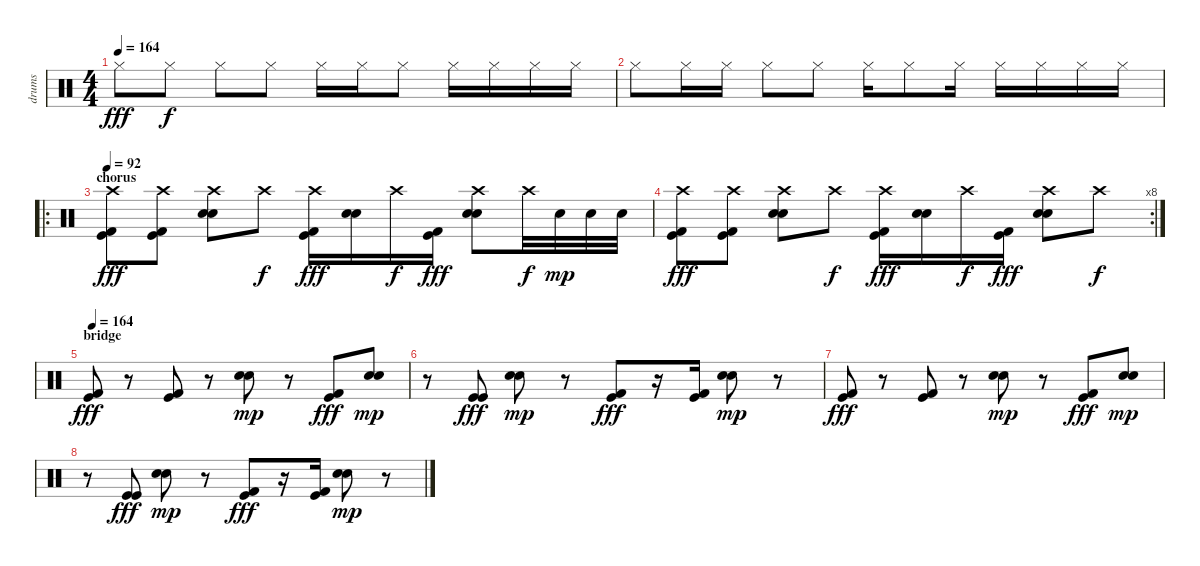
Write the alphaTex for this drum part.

\track ("drums" "drums") {instrument percussion}
\staff {score}
\articulation defaults
\ts (4 4)
\tempo 164
\clef neutral
\ks c "Hi-Hat (closed)".8{dy fff} "Hi-Hat (closed)".8{dy f} "Hi-Hat (closed)".8 "Hi-Hat (closed)".8 "Hi-Hat (closed)".16 "Hi-Hat (closed)".16 "Hi-Hat (closed)".8 "Hi-Hat (closed)".16 "Hi-Hat (closed)".16 "Hi-Hat (closed)".16 "Hi-Hat (closed)".16
|
"Hi-Hat (closed)".8 "Hi-Hat (closed)".16 "Hi-Hat (closed)".16 "Hi-Hat (closed)".8 "Hi-Hat (closed)".8 "Hi-Hat (closed)".16 "Hi-Hat (closed)".8 "Hi-Hat (closed)".16 "Hi-Hat (closed)".16 "Hi-Hat (closed)".16 "Hi-Hat (closed)".16 "Hi-Hat (closed)".16 |
\ro
\section ("" "chorus")
\tempo 92
("Crash high (hit)" "Kick (hit) 2" "Kick (hit)").8{dy fff} ("Crash high (hit)" "Kick (hit) 2" "Kick (hit)").8 ("Crash high (hit)" "Electric Snare (hit)" "Snare (hit) 2").8 "Crash high (hit)".8{dy f} ("Crash high (hit)" "Kick (hit) 2" "Kick (hit)").16{dy fff} ("Electric Snare (hit)" "Snare (hit) 2").16 "Crash high (hit)".16{dy f} ("Kick (hit) 2" "Kick (hit)").16{dy fff} ("Crash high (hit)" "Electric Snare (hit)" "Snare (hit) 2").8 "Crash high (hit)".32{dy f} "Electric Snare (hit)".32{dy mp} "Electric Snare (hit)".32 "Electric Snare (hit)".32 |
\rc 8
("Crash high (hit)" "Kick (hit) 2" "Kick (hit)").8{dy fff} ("Crash high (hit)" "Kick (hit) 2" "Kick (hit)").8 ("Crash high (hit)" "Electric Snare (hit)" "Snare (hit) 2").8 "Crash high (hit)".8{dy f} ("Crash high (hit)" "Kick (hit) 2" "Kick (hit)").16{dy fff} ("Electric Snare (hit)" "Snare (hit) 2").16 "Crash high (hit)".16{dy f} ("Kick (hit) 2" "Kick (hit)").16{dy fff} ("Crash high (hit)" "Electric Snare (hit)" "Snare (hit) 2").8 "Crash high (hit)".8{dy f} |
\section ("" "bridge")
\tempo 164
("Kick (hit)" "Kick (hit) 2").8{dy fff} r.8 ("Kick (hit)" "Kick (hit) 2").8 r.8 ("Electric Snare (hit)" "Snare (hit) 2").8{dy mp} r.8 ("Kick (hit)" "Kick (hit) 2").8{dy fff} ("Electric Snare (hit)" "Snare (hit) 2").8{dy mp} |
r.8 ("Kick (hit)" "Kick (hit)").8{dy fff} ("Electric Snare (hit)" "Snare (hit) 2").8{dy mp} r.8 ("Kick (hit)" "Kick (hit) 2").8{dy fff} r.16 ("Kick (hit)" "Kick (hit) 2").16 ("Electric Snare (hit)" "Snare (hit) 2").8{dy mp} r.8 |
("Kick (hit)" "Kick (hit) 2").8{dy fff} r.8 ("Kick (hit)" "Kick (hit) 2").8 r.8 ("Electric Snare (hit)" "Snare (hit) 2").8{dy mp} r.8 ("Kick (hit)" "Kick (hit) 2").8{dy fff} ("Electric Snare (hit)" "Snare (hit) 2").8{dy mp} |
r.8 ("Kick (hit)" "Kick (hit)").8{dy fff} ("Electric Snare (hit)" "Snare (hit) 2").8{dy mp} r.8 ("Kick (hit)" "Kick (hit) 2").8{dy fff} r.16 ("Kick (hit)" "Kick (hit) 2").16 ("Electric Snare (hit)" "Snare (hit) 2").8{dy mp} r.8
